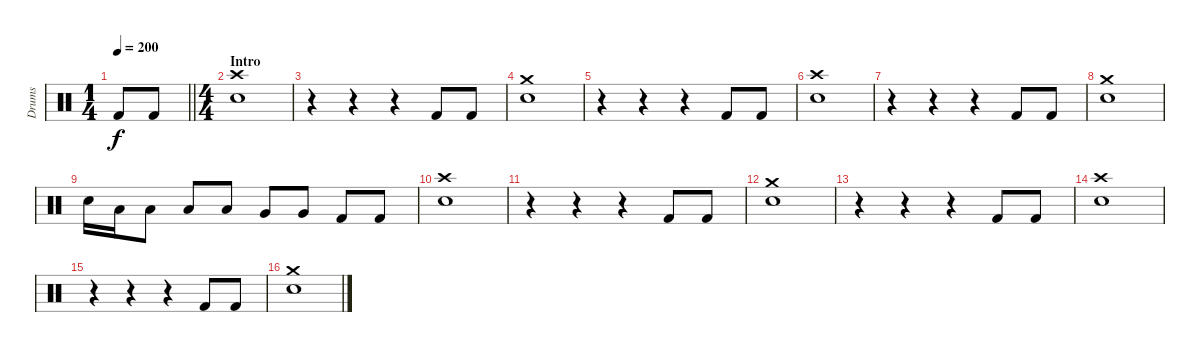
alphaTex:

\track ("Drums" "Drums") {instrument percussion}
\staff {score}
\articulation defaults
\ts (1 4)
\tempo 200
\clef neutral
\barLineRight lightlight
\ks c "Kick (hit) 2".8{dy f} "Kick (hit) 2".8
|
\ts (4 4)
\section ("" "Intro")
("Crash high (hit)" "Electric Snare (hit)").1 |
r.4 r.4 r.4 "Kick (hit) 2".8 "Kick (hit) 2".8 |
("Crash medium (hit)" "Electric Snare (hit)").1 |
r.4 r.4 r.4 "Kick (hit) 2".8 "Kick (hit) 2".8 |
("Crash high (hit)" "Electric Snare (hit)").1 |
r.4 r.4 r.4 "Kick (hit) 2".8 "Kick (hit) 2".8 |
("Crash medium (hit)" "Electric Snare (hit)").1 |
"Electric Snare (hit)".16 "Low Tom (hit)".16 "Low Tom (hit)".8 "Low Tom (hit)".8 "Low Tom (hit)".8 "Very Low Tom (hit)".8 "Very Low Tom (hit)".8 "Kick (hit) 2".8 "Kick (hit) 2".8 |
("Crash high (hit)" "Electric Snare (hit)").1 |
r.4 r.4 r.4 "Kick (hit) 2".8 "Kick (hit) 2".8 |
("Crash medium (hit)" "Electric Snare (hit)").1 |
r.4 r.4 r.4 "Kick (hit) 2".8 "Kick (hit) 2".8 |
("Crash high (hit)" "Electric Snare (hit)").1 |
r.4 r.4 r.4 "Kick (hit) 2".8 "Kick (hit) 2".8 |
("Crash medium (hit)" "Electric Snare (hit)").1
